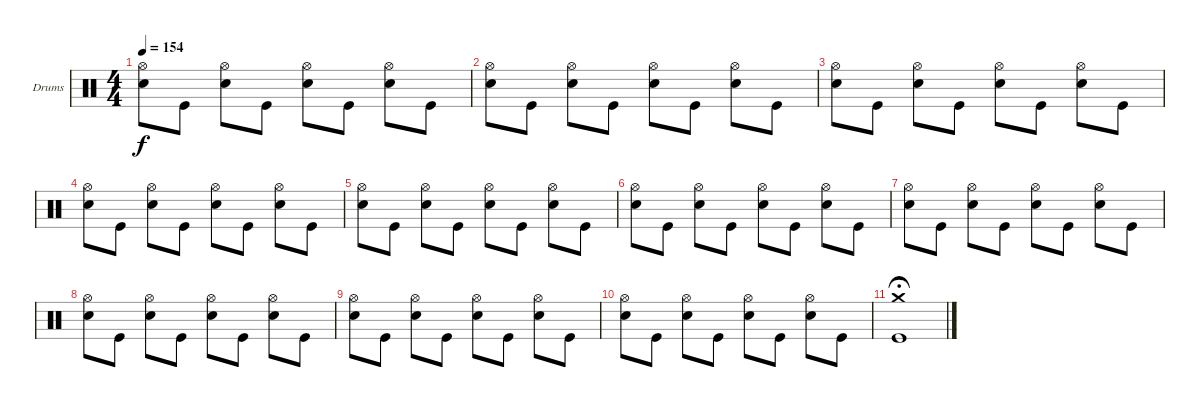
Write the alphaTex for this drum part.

\defaultSystemsLayout 4
\bracketExtendMode groupsimilarinstruments
\firstSystemTrackNameOrientation horizontal
\otherSystemsTrackNameOrientation horizontal
\track ("Drumkit" "Drums") {instrument percussion}
\staff {score}
\articulation defaults
\ts (4 4)
\tempo 154
\clef neutral
\scale
1.02648
\ks c
("Hi-Hat (open)" "Snare (hit) 2").8{dy f} "Kick (hit)".8 ("Hi-Hat (open)" "Snare (hit) 2").8 "Kick (hit)".8 ("Hi-Hat (open)" "Snare (hit) 2").8 "Kick (hit)".8 ("Hi-Hat (open)" "Snare (hit) 2").8 "Kick (hit)".8 |
\scale
0.973518 ("Hi-Hat (open)" "Snare (hit) 2").8 "Kick (hit)".8 ("Hi-Hat (open)" "Snare (hit) 2").8 "Kick (hit)".8 ("Hi-Hat (open)" "Snare (hit) 2").8 "Kick (hit)".8 ("Hi-Hat (open)" "Snare (hit) 2").8 "Kick (hit)".8 |
\scale
1.02648 ("Hi-Hat (open)" "Snare (hit) 2").8 "Kick (hit)".8 ("Hi-Hat (open)" "Snare (hit) 2").8 "Kick (hit)".8 ("Hi-Hat (open)" "Snare (hit) 2").8 "Kick (hit)".8 ("Hi-Hat (open)" "Snare (hit) 2").8 "Kick (hit)".8 |
\scale
0.973518 ("Hi-Hat (open)" "Snare (hit) 2").8 "Kick (hit)".8 ("Hi-Hat (open)" "Snare (hit) 2").8 "Kick (hit)".8 ("Hi-Hat (open)" "Snare (hit) 2").8 "Kick (hit)".8 ("Hi-Hat (open)" "Snare (hit) 2").8 "Kick (hit)".8 |
\scale
1.02648 ("Hi-Hat (open)" "Snare (hit) 2").8 "Kick (hit)".8 ("Hi-Hat (open)" "Snare (hit) 2").8 "Kick (hit)".8 ("Hi-Hat (open)" "Snare (hit) 2").8 "Kick (hit)".8 ("Hi-Hat (open)" "Snare (hit) 2").8 "Kick (hit)".8 |
\scale
0.973518 ("Hi-Hat (open)" "Snare (hit) 2").8 "Kick (hit)".8 ("Hi-Hat (open)" "Snare (hit) 2").8 "Kick (hit)".8 ("Hi-Hat (open)" "Snare (hit) 2").8 "Kick (hit)".8 ("Hi-Hat (open)" "Snare (hit) 2").8 "Kick (hit)".8 |
\scale
1.02648 ("Hi-Hat (open)" "Snare (hit) 2").8 "Kick (hit)".8 ("Hi-Hat (open)" "Snare (hit) 2").8 "Kick (hit)".8 ("Hi-Hat (open)" "Snare (hit) 2").8 "Kick (hit)".8 ("Hi-Hat (open)" "Snare (hit) 2").8 "Kick (hit)".8 |
\scale
0.973518 ("Hi-Hat (open)" "Snare (hit) 2").8 "Kick (hit)".8 ("Hi-Hat (open)" "Snare (hit) 2").8 "Kick (hit)".8 ("Hi-Hat (open)" "Snare (hit) 2").8 "Kick (hit)".8 ("Hi-Hat (open)" "Snare (hit) 2").8 "Kick (hit)".8 |
\scale
1.02648 ("Hi-Hat (open)" "Snare (hit) 2").8 "Kick (hit)".8 ("Hi-Hat (open)" "Snare (hit) 2").8 "Kick (hit)".8 ("Hi-Hat (open)" "Snare (hit) 2").8 "Kick (hit)".8 ("Hi-Hat (open)" "Snare (hit) 2").8 "Kick (hit)".8 |
\scale
0.973518 ("Hi-Hat (open)" "Snare (hit) 2").8 "Kick (hit)".8 ("Hi-Hat (open)" "Snare (hit) 2").8 "Kick (hit)".8 ("Hi-Hat (open)" "Snare (hit) 2").8 "Kick (hit)".8 ("Hi-Hat (open)" "Snare (hit) 2").8 "Kick (hit)".8 |
("Crash medium (hit)" "Kick (hit)").1{fermata (medium 1)}
